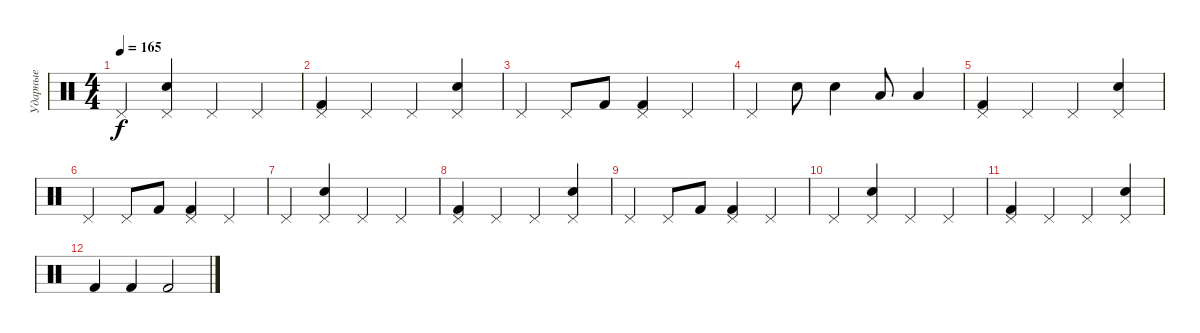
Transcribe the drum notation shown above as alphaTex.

\track ("Ударные" "Ударные") {instrument percussion}
\staff {score}
\articulation defaults
\ts (4 4)
\tempo 165
\clef neutral
\ks c "Pedal Hi-Hat (hit)".4{dy f}
("Pedal Hi-Hat (hit)" "Snare (hit) 2").4 "Pedal Hi-Hat (hit)".4 "Pedal Hi-Hat (hit)".4 |
("Pedal Hi-Hat (hit)" "Kick (hit) 2").4 "Pedal Hi-Hat (hit)".4 "Pedal Hi-Hat (hit)".4 ("Pedal Hi-Hat (hit)" "Snare (hit) 2").4 |
"Pedal Hi-Hat (hit)".4 "Pedal Hi-Hat (hit)".8 "Kick (hit) 2".8 ("Pedal Hi-Hat (hit)" "Kick (hit) 2").4 "Pedal Hi-Hat (hit)".4 |
"Pedal Hi-Hat (hit)".4 "Snare (hit) 2".8 "Snare (hit) 2".4 "Low Tom (hit)".8 "Low Tom (hit)".4 |
("Pedal Hi-Hat (hit)" "Kick (hit) 2").4 "Pedal Hi-Hat (hit)".4 "Pedal Hi-Hat (hit)".4 ("Pedal Hi-Hat (hit)" "Snare (hit) 2").4 |
"Pedal Hi-Hat (hit)".4 "Pedal Hi-Hat (hit)".8 "Kick (hit) 2".8 ("Pedal Hi-Hat (hit)" "Kick (hit) 2").4 "Pedal Hi-Hat (hit)".4 |
"Pedal Hi-Hat (hit)".4 ("Pedal Hi-Hat (hit)" "Snare (hit) 2").4 "Pedal Hi-Hat (hit)".4 "Pedal Hi-Hat (hit)".4 |
("Pedal Hi-Hat (hit)" "Kick (hit) 2").4 "Pedal Hi-Hat (hit)".4 "Pedal Hi-Hat (hit)".4 ("Pedal Hi-Hat (hit)" "Snare (hit) 2").4 |
"Pedal Hi-Hat (hit)".4 "Pedal Hi-Hat (hit)".8 "Kick (hit) 2".8 ("Pedal Hi-Hat (hit)" "Kick (hit) 2").4 "Pedal Hi-Hat (hit)".4 |
"Pedal Hi-Hat (hit)".4 ("Pedal Hi-Hat (hit)" "Snare (hit) 2").4 "Pedal Hi-Hat (hit)".4 "Pedal Hi-Hat (hit)".4 |
("Pedal Hi-Hat (hit)" "Kick (hit) 2").4 "Pedal Hi-Hat (hit)".4 "Pedal Hi-Hat (hit)".4 ("Pedal Hi-Hat (hit)" "Snare (hit) 2").4 |
"Kick (hit) 2".4 "Kick (hit) 2".4 "Kick (hit) 2".2
